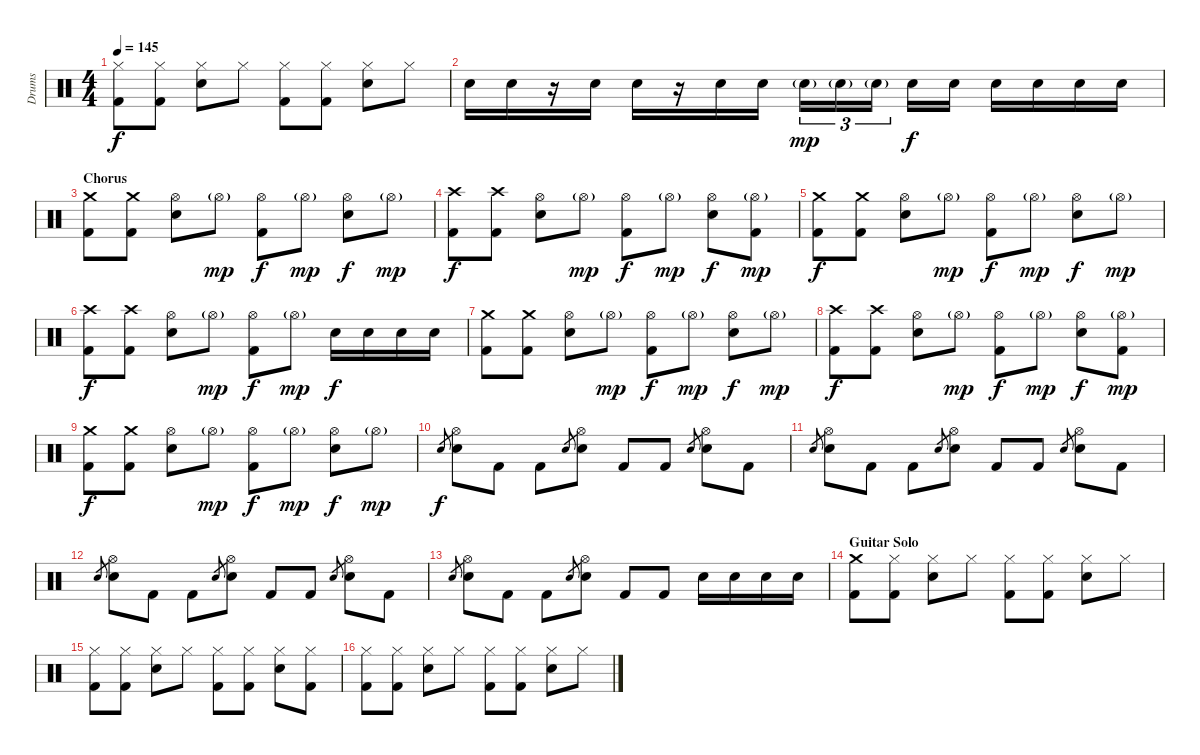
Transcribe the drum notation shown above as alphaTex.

\track ("Drums" "Drums") {instrument percussion}
\staff {score}
\articulation defaults
\ts (4 4)
\tempo 145
\clef neutral
\ks c
("Hi-Hat (closed)" "Kick (hit) 2").8{dy f} ("Hi-Hat (closed)" "Kick (hit) 2").8 ("Hi-Hat (closed)" "Electric Snare (hit)").8 "Hi-Hat (closed)".8 ("Hi-Hat (closed)" "Kick (hit) 2").8 ("Hi-Hat (closed)" "Kick (hit) 2").8 ("Hi-Hat (closed)" "Electric Snare (hit)").8 "Hi-Hat (closed)".8 |
"Electric Snare (hit)".16 "Electric Snare (hit)".16 r.16 "Electric Snare (hit)".16 "Electric Snare (hit)".16 r.16 "Electric Snare (hit)".16 "Electric Snare (hit)".16 "Electric Snare (hit)"{g}.16{tu (3 2) dy mp} "Electric Snare (hit)"{g}.16{tu (3 2)} "Electric Snare (hit)"{g}.16{tu (3 2)} "Electric Snare (hit)".16{dy f} "Electric Snare (hit)".16 "Electric Snare (hit)".16 "Electric Snare (hit)".16 "Electric Snare (hit)".16 "Electric Snare (hit)".16 |
\section ("" "Chorus")
("Crash medium (hit)" "Kick (hit) 2").8 ("Crash medium (hit)" "Kick (hit) 2").8 ("Hi-Hat (open)" "Electric Snare (hit)").8 "Hi-Hat (open)"{g}.8{dy mp} ("Hi-Hat (open)" "Kick (hit) 2").8{dy f} "Hi-Hat (open)"{g}.8{dy mp} ("Hi-Hat (open)" "Electric Snare (hit)").8{dy f} "Hi-Hat (open)"{g}.8{dy mp} |
("Crash high (hit)" "Kick (hit) 2").8{dy f} ("Crash high (hit)" "Kick (hit) 2").8 ("Hi-Hat (open)" "Electric Snare (hit)").8 "Hi-Hat (open)"{g}.8{dy mp} ("Hi-Hat (open)" "Kick (hit) 2").8{dy f} "Hi-Hat (open)"{g}.8{dy mp} ("Hi-Hat (open)" "Electric Snare (hit)").8{dy f} ("Hi-Hat (open)"{g} "Kick (hit) 2").8{dy mp} |
("Crash medium (hit)" "Kick (hit) 2").8{dy f} ("Crash medium (hit)" "Kick (hit) 2").8 ("Hi-Hat (open)" "Electric Snare (hit)").8 "Hi-Hat (open)"{g}.8{dy mp} ("Hi-Hat (open)" "Kick (hit) 2").8{dy f} "Hi-Hat (open)"{g}.8{dy mp} ("Hi-Hat (open)" "Electric Snare (hit)").8{dy f} "Hi-Hat (open)"{g}.8{dy mp} |
("Crash high (hit)" "Kick (hit) 2").8{dy f} ("Crash high (hit)" "Kick (hit) 2").8 ("Hi-Hat (open)" "Electric Snare (hit)").8 "Hi-Hat (open)"{g}.8{dy mp} ("Hi-Hat (open)" "Kick (hit) 2").8{dy f} "Hi-Hat (open)"{g}.8{dy mp} "Electric Snare (hit)".16{dy f} "Electric Snare (hit)".16 "Electric Snare (hit)".16 "Electric Snare (hit)".16 |
("Crash medium (hit)" "Kick (hit) 2").8 ("Crash medium (hit)" "Kick (hit) 2").8 ("Hi-Hat (open)" "Electric Snare (hit)").8 "Hi-Hat (open)"{g}.8{dy mp} ("Hi-Hat (open)" "Kick (hit) 2").8{dy f} "Hi-Hat (open)"{g}.8{dy mp} ("Hi-Hat (open)" "Electric Snare (hit)").8{dy f} "Hi-Hat (open)"{g}.8{dy mp} |
("Crash high (hit)" "Kick (hit) 2").8{dy f} ("Crash high (hit)" "Kick (hit) 2").8 ("Hi-Hat (open)" "Electric Snare (hit)").8 "Hi-Hat (open)"{g}.8{dy mp} ("Hi-Hat (open)" "Kick (hit) 2").8{dy f} "Hi-Hat (open)"{g}.8{dy mp} ("Hi-Hat (open)" "Electric Snare (hit)").8{dy f} ("Hi-Hat (open)"{g} "Kick (hit) 2").8{dy mp} |
("Crash medium (hit)" "Kick (hit) 2").8{dy f} ("Crash medium (hit)" "Kick (hit) 2").8 ("Hi-Hat (open)" "Electric Snare (hit)").8 "Hi-Hat (open)"{g}.8{dy mp} ("Hi-Hat (open)" "Kick (hit) 2").8{dy f} "Hi-Hat (open)"{g}.8{dy mp} ("Hi-Hat (open)" "Electric Snare (hit)").8{dy f} "Hi-Hat (open)"{g}.8{dy mp} |
"Electric Snare (hit)".8{gr dy f} ("Hi-Hat (open)" "Electric Snare (hit)").8 "Kick (hit) 2".8 "Kick (hit) 2".8 "Electric Snare (hit)".8{gr} ("Hi-Hat (open)" "Electric Snare (hit)").8 "Kick (hit) 2".8 "Kick (hit) 2".8 "Electric Snare (hit)".8{gr} ("Hi-Hat (open)" "Electric Snare (hit)").8 "Kick (hit) 2".8 |
"Electric Snare (hit)".8{gr} ("Hi-Hat (open)" "Electric Snare (hit)").8 "Kick (hit) 2".8 "Kick (hit) 2".8 "Electric Snare (hit)".8{gr} ("Hi-Hat (open)" "Electric Snare (hit)").8 "Kick (hit) 2".8 "Kick (hit) 2".8 "Electric Snare (hit)".8{gr} ("Hi-Hat (open)" "Electric Snare (hit)").8 "Kick (hit) 2".8 |
"Electric Snare (hit)".8{gr} ("Hi-Hat (open)" "Electric Snare (hit)").8 "Kick (hit) 2".8 "Kick (hit) 2".8 "Electric Snare (hit)".8{gr} ("Hi-Hat (open)" "Electric Snare (hit)").8 "Kick (hit) 2".8 "Kick (hit) 2".8 "Electric Snare (hit)".8{gr} ("Hi-Hat (open)" "Electric Snare (hit)").8 "Kick (hit) 2".8 |
"Electric Snare (hit)".8{gr} ("Hi-Hat (open)" "Electric Snare (hit)").8 "Kick (hit) 2".8 "Kick (hit) 2".8 "Electric Snare (hit)".8{gr} ("Hi-Hat (open)" "Electric Snare (hit)").8 "Kick (hit) 2".8 "Kick (hit) 2".8 "Electric Snare (hit)".16 "Electric Snare (hit)".16 "Electric Snare (hit)".16 "Electric Snare (hit)".16 |
\section ("" "Guitar Solo")
("Crash medium (hit)" "Kick (hit) 2").8 ("Hi-Hat (closed)" "Kick (hit) 2").8 ("Hi-Hat (closed)" "Electric Snare (hit)").8 "Hi-Hat (closed)".8 ("Hi-Hat (closed)" "Kick (hit) 2").8 ("Hi-Hat (closed)" "Kick (hit) 2").8 ("Hi-Hat (closed)" "Electric Snare (hit)").8 "Hi-Hat (closed)".8 |
("Hi-Hat (closed)" "Kick (hit) 2").8 ("Hi-Hat (closed)" "Kick (hit) 2").8 ("Hi-Hat (closed)" "Electric Snare (hit)").8 "Hi-Hat (closed)".8 ("Hi-Hat (closed)" "Kick (hit) 2").8 ("Hi-Hat (closed)" "Kick (hit) 2").8 ("Hi-Hat (closed)" "Electric Snare (hit)").8 ("Hi-Hat (closed)" "Kick (hit) 2").8 |
("Hi-Hat (closed)" "Kick (hit) 2").8 ("Hi-Hat (closed)" "Kick (hit) 2").8 ("Hi-Hat (closed)" "Electric Snare (hit)").8 "Hi-Hat (closed)".8 ("Hi-Hat (closed)" "Kick (hit) 2").8 ("Hi-Hat (closed)" "Kick (hit) 2").8 ("Hi-Hat (closed)" "Electric Snare (hit)").8 "Hi-Hat (closed)".8
